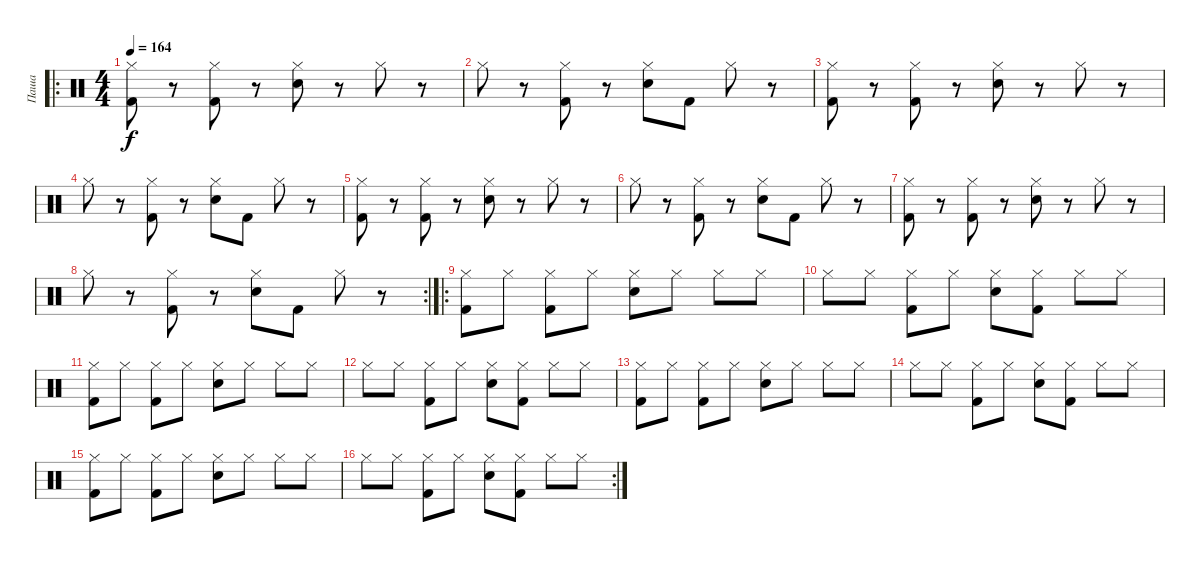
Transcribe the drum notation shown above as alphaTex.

\track ("Паша" "Паша") {instrument percussion}
\staff {score}
\articulation defaults
\ro
\ts (4 4)
\tempo 164
\clef neutral
\ks c
("Hi-Hat (closed)" "Kick (hit) 2").8{dy f} r.8 ("Hi-Hat (closed)" "Kick (hit) 2").8 r.8 ("Hi-Hat (closed)" "Electric Snare (hit)").8 r.8 "Hi-Hat (closed)".8 r.8 |
"Hi-Hat (closed)".8 r.8 ("Hi-Hat (closed)" "Kick (hit) 2").8 r.8 ("Hi-Hat (closed)" "Electric Snare (hit)").8 "Kick (hit) 2".8 "Hi-Hat (closed)".8 r.8 |
("Hi-Hat (closed)" "Kick (hit) 2").8 r.8 ("Hi-Hat (closed)" "Kick (hit) 2").8 r.8 ("Hi-Hat (closed)" "Electric Snare (hit)").8 r.8 "Hi-Hat (closed)".8 r.8 |
"Hi-Hat (closed)".8 r.8 ("Hi-Hat (closed)" "Kick (hit) 2").8 r.8 ("Hi-Hat (closed)" "Electric Snare (hit)").8 "Kick (hit) 2".8 "Hi-Hat (closed)".8 r.8 |
("Hi-Hat (closed)" "Kick (hit) 2").8 r.8 ("Hi-Hat (closed)" "Kick (hit) 2").8 r.8 ("Hi-Hat (closed)" "Electric Snare (hit)").8 r.8 "Hi-Hat (closed)".8 r.8 |
"Hi-Hat (closed)".8 r.8 ("Hi-Hat (closed)" "Kick (hit) 2").8 r.8 ("Hi-Hat (closed)" "Electric Snare (hit)").8 "Kick (hit) 2".8 "Hi-Hat (closed)".8 r.8 |
("Hi-Hat (closed)" "Kick (hit) 2").8 r.8 ("Hi-Hat (closed)" "Kick (hit) 2").8 r.8 ("Hi-Hat (closed)" "Electric Snare (hit)").8 r.8 "Hi-Hat (closed)".8 r.8 |
\rc 2 "Hi-Hat (closed)".8
r.8 ("Hi-Hat (closed)" "Kick (hit) 2").8 r.8 ("Hi-Hat (closed)" "Electric Snare (hit)").8 "Kick (hit) 2".8 "Hi-Hat (closed)".8 r.8 |
\ro
("Hi-Hat (closed)" "Kick (hit) 2").8 "Hi-Hat (closed)".8 ("Hi-Hat (closed)" "Kick (hit) 2").8 "Hi-Hat (closed)".8 ("Hi-Hat (closed)" "Electric Snare (hit)").8 "Hi-Hat (closed)".8 "Hi-Hat (closed)".8 "Hi-Hat (closed)".8 |
"Hi-Hat (closed)".8 "Hi-Hat (closed)".8 ("Hi-Hat (closed)" "Kick (hit) 2").8 "Hi-Hat (closed)".8 ("Hi-Hat (closed)" "Electric Snare (hit)").8 ("Hi-Hat (closed)" "Kick (hit) 2").8 "Hi-Hat (closed)".8 "Hi-Hat (closed)".8 |
("Hi-Hat (closed)" "Kick (hit) 2").8 "Hi-Hat (closed)".8 ("Hi-Hat (closed)" "Kick (hit) 2").8 "Hi-Hat (closed)".8 ("Hi-Hat (closed)" "Electric Snare (hit)").8 "Hi-Hat (closed)".8 "Hi-Hat (closed)".8 "Hi-Hat (closed)".8 |
"Hi-Hat (closed)".8 "Hi-Hat (closed)".8 ("Hi-Hat (closed)" "Kick (hit) 2").8 "Hi-Hat (closed)".8 ("Hi-Hat (closed)" "Electric Snare (hit)").8 ("Hi-Hat (closed)" "Kick (hit) 2").8 "Hi-Hat (closed)".8 "Hi-Hat (closed)".8 |
("Hi-Hat (closed)" "Kick (hit) 2").8 "Hi-Hat (closed)".8 ("Hi-Hat (closed)" "Kick (hit) 2").8 "Hi-Hat (closed)".8 ("Hi-Hat (closed)" "Electric Snare (hit)").8 "Hi-Hat (closed)".8 "Hi-Hat (closed)".8 "Hi-Hat (closed)".8 |
"Hi-Hat (closed)".8 "Hi-Hat (closed)".8 ("Hi-Hat (closed)" "Kick (hit) 2").8 "Hi-Hat (closed)".8 ("Hi-Hat (closed)" "Electric Snare (hit)").8 ("Hi-Hat (closed)" "Kick (hit) 2").8 "Hi-Hat (closed)".8 "Hi-Hat (closed)".8 |
("Hi-Hat (closed)" "Kick (hit) 2").8 "Hi-Hat (closed)".8 ("Hi-Hat (closed)" "Kick (hit) 2").8 "Hi-Hat (closed)".8 ("Hi-Hat (closed)" "Electric Snare (hit)").8 "Hi-Hat (closed)".8 "Hi-Hat (closed)".8 "Hi-Hat (closed)".8 |
\rc 2 "Hi-Hat (closed)".8 "Hi-Hat (closed)".8
("Hi-Hat (closed)" "Kick (hit) 2").8 "Hi-Hat (closed)".8 ("Hi-Hat (closed)" "Electric Snare (hit)").8 ("Hi-Hat (closed)" "Kick (hit) 2").8 "Hi-Hat (closed)".8 "Hi-Hat (closed)".8
